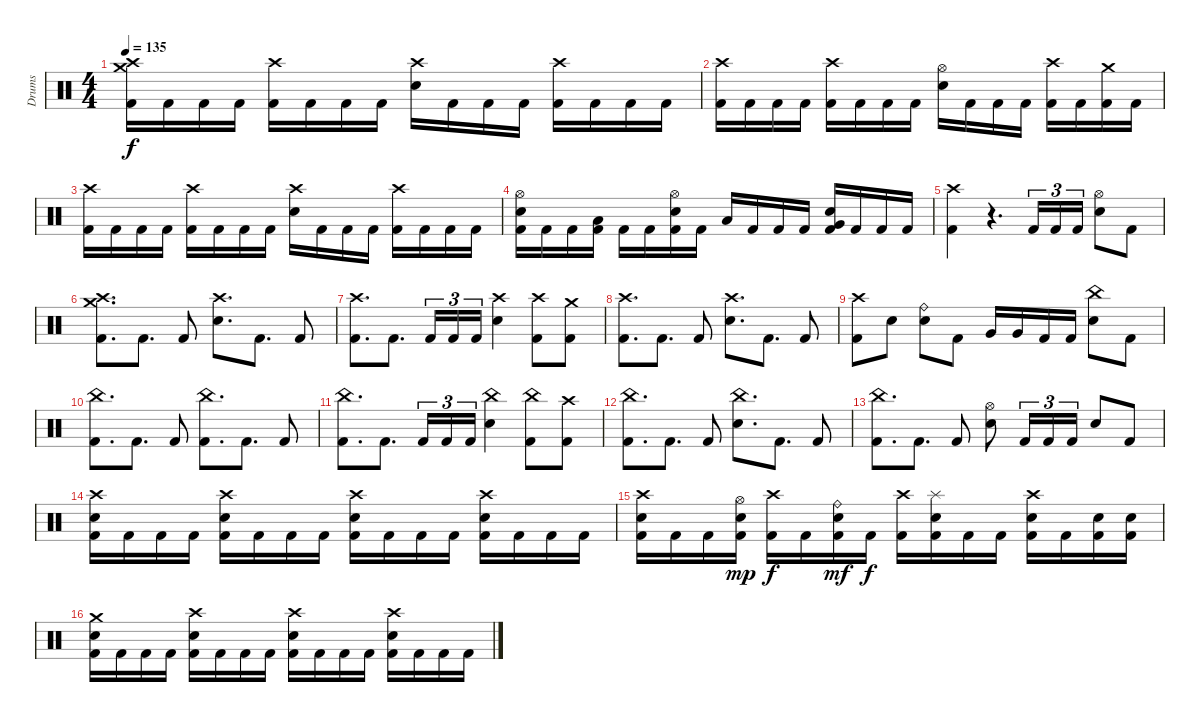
\track ("Drums" "Drums") {instrument percussion}
\staff {score}
\articulation defaults
\ts (4 4)
\tempo 135
\clef neutral
\ks c
("Crash high (hit)" "Crash medium (hit)" "Kick (hit) 2").16{dy f} "Kick (hit) 2".16 "Kick (hit) 2".16 "Kick (hit) 2".16 ("Crash high (hit)" "Kick (hit) 2").16 "Kick (hit) 2".16 "Kick (hit) 2".16 "Kick (hit) 2".16 ("Crash high (hit)" "Electric Snare (hit)").16 "Kick (hit) 2".16 "Kick (hit) 2".16 "Kick (hit) 2".16 ("Crash high (hit)" "Kick (hit) 2").16 "Kick (hit) 2".16 "Kick (hit) 2".16 "Kick (hit) 2".16 |
("Crash high (hit)" "Kick (hit) 2").16 "Kick (hit) 2".16 "Kick (hit) 2".16 "Kick (hit) 2".16 ("Crash high (hit)" "Kick (hit) 2").16 "Kick (hit) 2".16 "Kick (hit) 2".16 "Kick (hit) 2".16 ("Hi-Hat (open)" "Electric Snare (hit)").16 "Kick (hit) 2".16 "Kick (hit) 2".16 "Kick (hit) 2".16 ("Crash high (hit)" "Kick (hit) 2").16 "Kick (hit) 2".16 ("Crash medium (hit)" "Kick (hit) 2").16 "Kick (hit) 2".16 |
("Crash high (hit)" "Kick (hit) 2").16 "Kick (hit) 2".16 "Kick (hit) 2".16 "Kick (hit) 2".16 ("Crash high (hit)" "Kick (hit) 2").16 "Kick (hit) 2".16 "Kick (hit) 2".16 "Kick (hit) 2".16 ("Crash high (hit)" "Electric Snare (hit)").16 "Kick (hit) 2".16 "Kick (hit) 2".16 "Kick (hit) 2".16 ("Crash high (hit)" "Kick (hit) 2").16 "Kick (hit) 2".16 "Kick (hit) 2".16 "Kick (hit) 2".16 |
("Hi-Hat (open)" "Electric Snare (hit)" "Kick (hit) 2").16 "Kick (hit) 2".16 "Kick (hit) 2".16 ("Low Tom (hit)" "Kick (hit) 2").16 "Kick (hit) 2".16 "Kick (hit) 2".16 ("Hi-Hat (open)" "Electric Snare (hit)" "Kick (hit) 2").16 "Kick (hit) 2".16 "Low Tom (hit)".16 "Kick (hit) 2".16 "Kick (hit) 2".16 "Kick (hit) 2".16 ("Very Low Tom (hit)" "Electric Snare (hit)" "Kick (hit) 2").16 "Kick (hit) 2".16 "Kick (hit) 2".16 "Kick (hit) 2".16 |
("Crash high (hit)" "Kick (hit) 2").4 r.4{d volume 0} "Kick (hit) 2".16{tu (3 2) volume 13} "Kick (hit) 2".16{tu (3 2)} "Kick (hit) 2".16{tu (3 2)} ("Hi-Hat (open)" "Electric Snare (hit)").8 "Kick (hit) 2".8 |
("Crash high (hit)" "Crash medium (hit)" "Kick (hit) 2").8{d} "Kick (hit) 2".8{d} "Kick (hit) 2".8 ("Crash high (hit)" "Electric Snare (hit)").8{d} "Kick (hit) 2".8{d} "Kick (hit) 2".8 |
("Crash high (hit)" "Kick (hit) 2").8{d} "Kick (hit) 2".8{d} "Kick (hit) 2".16{tu (3 2)} "Kick (hit) 2".16{tu (3 2)} "Kick (hit) 2".16{tu (3 2)} ("Crash high (hit)" "Electric Snare (hit)").4 ("Crash high (hit)" "Kick (hit) 2").8 ("Crash medium (hit)" "Kick (hit) 2").8 |
("Crash high (hit)" "Kick (hit) 2").8{d} "Kick (hit) 2".8{d} "Kick (hit) 2".8 ("Crash high (hit)" "Electric Snare (hit)").8{d} "Kick (hit) 2".8{d} "Kick (hit) 2".8 |
("Crash high (hit)" "Kick (hit) 2").8 "Electric Snare (hit)".8 ("Ride (bell)" "Electric Snare (hit)").8 "Kick (hit) 2".8 "Very Low Tom (hit)".16 "Very Low Tom (hit)".16 "Kick (hit) 2".16 "Kick (hit) 2".16 ("China (hit)" "Electric Snare (hit)").8 "Kick (hit) 2".8 |
("China (hit)" "Kick (hit) 2").8{d} "Kick (hit) 2".8{d} "Kick (hit) 2".8 ("China (hit)" "Kick (hit) 2").8{d} "Kick (hit) 2".8{d} "Kick (hit) 2".8 |
("China (hit)" "Kick (hit) 2").8{d} "Kick (hit) 2".8{d} "Kick (hit) 2".16{tu (3 2)} "Kick (hit) 2".16{tu (3 2)} "Kick (hit) 2".16{tu (3 2)} ("China (hit)" "Electric Snare (hit)").4 ("China (hit)" "Kick (hit) 2").8 ("Crash high (hit)" "Kick (hit) 2").8 |
("China (hit)" "Kick (hit) 2").8{d} "Kick (hit) 2".8{d} "Kick (hit) 2".8 ("China (hit)" "Electric Snare (hit)").8{d} "Kick (hit) 2".8{d} "Kick (hit) 2".8 |
("China (hit)" "Kick (hit) 2").8{d} "Kick (hit) 2".8{d} "Kick (hit) 2".8 ("Hi-Hat (open)" "Electric Snare (hit)").8 "Kick (hit) 2".16{tu (3 2)} "Kick (hit) 2".16{tu (3 2)} "Kick (hit) 2".16{tu (3 2)} "Electric Snare (hit)".8 "Kick (hit) 2".8 |
("Crash high (hit)" "Electric Snare (hit)" "Kick (hit) 2").16 "Kick (hit) 2".16 "Kick (hit) 2".16 "Kick (hit) 2".16 ("Crash high (hit)" "Electric Snare (hit)" "Kick (hit) 2").16 "Kick (hit) 2".16 "Kick (hit) 2".16 "Kick (hit) 2".16 ("Crash high (hit)" "Electric Snare (hit)" "Kick (hit) 2").16 "Kick (hit) 2".16 "Kick (hit) 2".16 "Kick (hit) 2".16 ("Crash high (hit)" "Electric Snare (hit)" "Kick (hit) 2").16 "Kick (hit) 2".16 "Kick (hit) 2".16 "Kick (hit) 2".16 |
("Crash high (hit)" "Electric Snare (hit)" "Kick (hit) 2").16 "Kick (hit) 2".16 "Kick (hit) 2".16 ("Hi-Hat (open)" "Electric Snare (hit)" "Kick (hit) 2").16{dy mp} ("Crash high (hit)" "Kick (hit) 2").16{dy f} "Kick (hit) 2".16 ("Ride (bell)" "Electric Snare (hit)" "Kick (hit) 2").16{dy mf} "Kick (hit) 2".16{dy f} ("Crash high (hit)" "Kick (hit) 2").16 ("Splash (hit)" "Electric Snare (hit)" "Kick (hit) 2").16 "Kick (hit) 2".16 "Kick (hit) 2".16 ("Crash high (hit)" "Electric Snare (hit)" "Kick (hit) 2").16 "Kick (hit) 2".16 ("Electric Snare (hit)" "Kick (hit) 2").16 ("Electric Snare (hit)" "Kick (hit) 2").16 |
("Crash medium (hit)" "Electric Snare (hit)" "Kick (hit) 2").16 "Kick (hit) 2".16 "Kick (hit) 2".16 "Kick (hit) 2".16 ("Crash high (hit)" "Electric Snare (hit)" "Kick (hit) 2").16 "Kick (hit) 2".16 "Kick (hit) 2".16 "Kick (hit) 2".16 ("Crash high (hit)" "Electric Snare (hit)" "Kick (hit) 2").16 "Kick (hit) 2".16 "Kick (hit) 2".16 "Kick (hit) 2".16 ("Crash high (hit)" "Electric Snare (hit)" "Kick (hit) 2").16 "Kick (hit) 2".16 "Kick (hit) 2".16 "Kick (hit) 2".16
